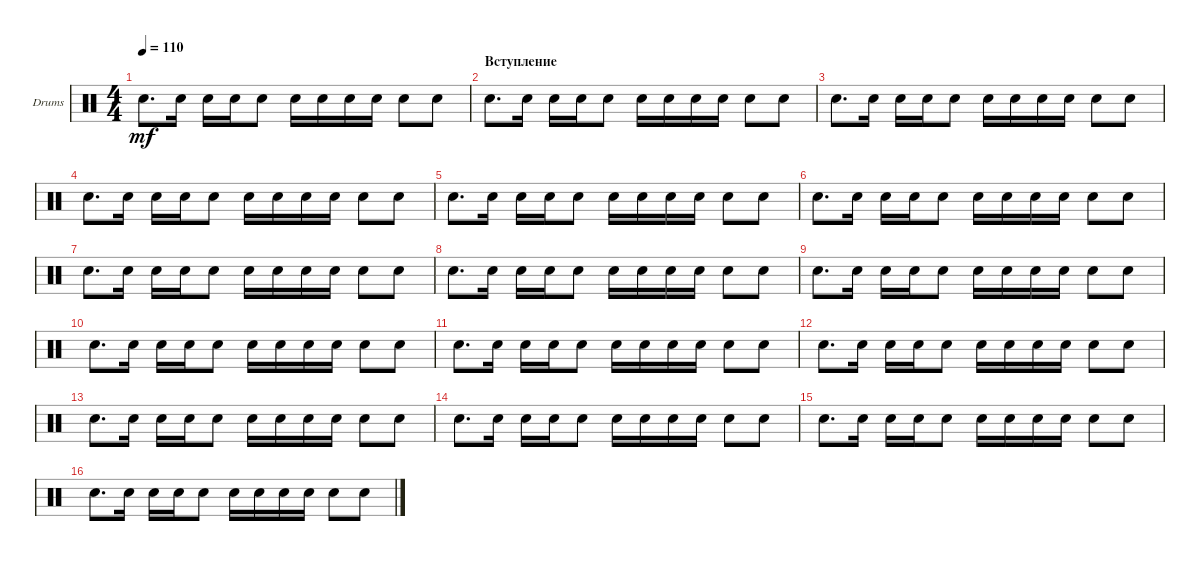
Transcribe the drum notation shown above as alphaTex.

\defaultSystemsLayout 4
\bracketExtendMode groupsimilarinstruments
\firstSystemTrackNameOrientation horizontal
\otherSystemsTrackNameOrientation horizontal
\track ("Drumkit" "Drums") {instrument percussion}
\staff {score}
\articulation defaults
\ts (4 4)
\tempo 110
\clef neutral
\ks c "Snare (hit) 2".8{d dy mf} "Snare (hit) 2".16 "Snare (hit) 2".16 "Snare (hit) 2".16 "Snare (hit) 2".8 "Snare (hit) 2".16 "Snare (hit) 2".16 "Snare (hit) 2".16 "Snare (hit) 2".16 "Snare (hit) 2".8 "Snare (hit) 2".8
|
\section ("" "Вступление")
"Snare (hit) 2".8{d} "Snare (hit) 2".16 "Snare (hit) 2".16 "Snare (hit) 2".16 "Snare (hit) 2".8 "Snare (hit) 2".16 "Snare (hit) 2".16 "Snare (hit) 2".16 "Snare (hit) 2".16 "Snare (hit) 2".8 "Snare (hit) 2".8 |
"Snare (hit) 2".8{d} "Snare (hit) 2".16 "Snare (hit) 2".16 "Snare (hit) 2".16 "Snare (hit) 2".8 "Snare (hit) 2".16 "Snare (hit) 2".16 "Snare (hit) 2".16 "Snare (hit) 2".16 "Snare (hit) 2".8 "Snare (hit) 2".8 |
"Snare (hit) 2".8{d} "Snare (hit) 2".16 "Snare (hit) 2".16 "Snare (hit) 2".16 "Snare (hit) 2".8 "Snare (hit) 2".16 "Snare (hit) 2".16 "Snare (hit) 2".16 "Snare (hit) 2".16 "Snare (hit) 2".8 "Snare (hit) 2".8 |
"Snare (hit) 2".8{d} "Snare (hit) 2".16 "Snare (hit) 2".16 "Snare (hit) 2".16 "Snare (hit) 2".8 "Snare (hit) 2".16 "Snare (hit) 2".16 "Snare (hit) 2".16 "Snare (hit) 2".16 "Snare (hit) 2".8 "Snare (hit) 2".8 |
"Snare (hit) 2".8{d} "Snare (hit) 2".16 "Snare (hit) 2".16 "Snare (hit) 2".16 "Snare (hit) 2".8 "Snare (hit) 2".16 "Snare (hit) 2".16 "Snare (hit) 2".16 "Snare (hit) 2".16 "Snare (hit) 2".8 "Snare (hit) 2".8 |
"Snare (hit) 2".8{d} "Snare (hit) 2".16 "Snare (hit) 2".16 "Snare (hit) 2".16 "Snare (hit) 2".8 "Snare (hit) 2".16 "Snare (hit) 2".16 "Snare (hit) 2".16 "Snare (hit) 2".16 "Snare (hit) 2".8 "Snare (hit) 2".8 |
"Snare (hit) 2".8{d} "Snare (hit) 2".16 "Snare (hit) 2".16 "Snare (hit) 2".16 "Snare (hit) 2".8 "Snare (hit) 2".16 "Snare (hit) 2".16 "Snare (hit) 2".16 "Snare (hit) 2".16 "Snare (hit) 2".8 "Snare (hit) 2".8 |
"Snare (hit) 2".8{d} "Snare (hit) 2".16 "Snare (hit) 2".16 "Snare (hit) 2".16 "Snare (hit) 2".8 "Snare (hit) 2".16 "Snare (hit) 2".16 "Snare (hit) 2".16 "Snare (hit) 2".16 "Snare (hit) 2".8 "Snare (hit) 2".8 |
"Snare (hit) 2".8{d} "Snare (hit) 2".16 "Snare (hit) 2".16 "Snare (hit) 2".16 "Snare (hit) 2".8 "Snare (hit) 2".16 "Snare (hit) 2".16 "Snare (hit) 2".16 "Snare (hit) 2".16 "Snare (hit) 2".8 "Snare (hit) 2".8 |
"Snare (hit) 2".8{d} "Snare (hit) 2".16 "Snare (hit) 2".16 "Snare (hit) 2".16 "Snare (hit) 2".8 "Snare (hit) 2".16 "Snare (hit) 2".16 "Snare (hit) 2".16 "Snare (hit) 2".16 "Snare (hit) 2".8 "Snare (hit) 2".8 |
"Snare (hit) 2".8{d} "Snare (hit) 2".16 "Snare (hit) 2".16 "Snare (hit) 2".16 "Snare (hit) 2".8 "Snare (hit) 2".16 "Snare (hit) 2".16 "Snare (hit) 2".16 "Snare (hit) 2".16 "Snare (hit) 2".8 "Snare (hit) 2".8 |
"Snare (hit) 2".8{d} "Snare (hit) 2".16 "Snare (hit) 2".16 "Snare (hit) 2".16 "Snare (hit) 2".8 "Snare (hit) 2".16 "Snare (hit) 2".16 "Snare (hit) 2".16 "Snare (hit) 2".16 "Snare (hit) 2".8 "Snare (hit) 2".8 |
"Snare (hit) 2".8{d} "Snare (hit) 2".16 "Snare (hit) 2".16 "Snare (hit) 2".16 "Snare (hit) 2".8 "Snare (hit) 2".16 "Snare (hit) 2".16 "Snare (hit) 2".16 "Snare (hit) 2".16 "Snare (hit) 2".8 "Snare (hit) 2".8 |
"Snare (hit) 2".8{d} "Snare (hit) 2".16 "Snare (hit) 2".16 "Snare (hit) 2".16 "Snare (hit) 2".8 "Snare (hit) 2".16 "Snare (hit) 2".16 "Snare (hit) 2".16 "Snare (hit) 2".16 "Snare (hit) 2".8 "Snare (hit) 2".8 |
"Snare (hit) 2".8{d} "Snare (hit) 2".16 "Snare (hit) 2".16 "Snare (hit) 2".16 "Snare (hit) 2".8 "Snare (hit) 2".16 "Snare (hit) 2".16 "Snare (hit) 2".16 "Snare (hit) 2".16 "Snare (hit) 2".8 "Snare (hit) 2".8
